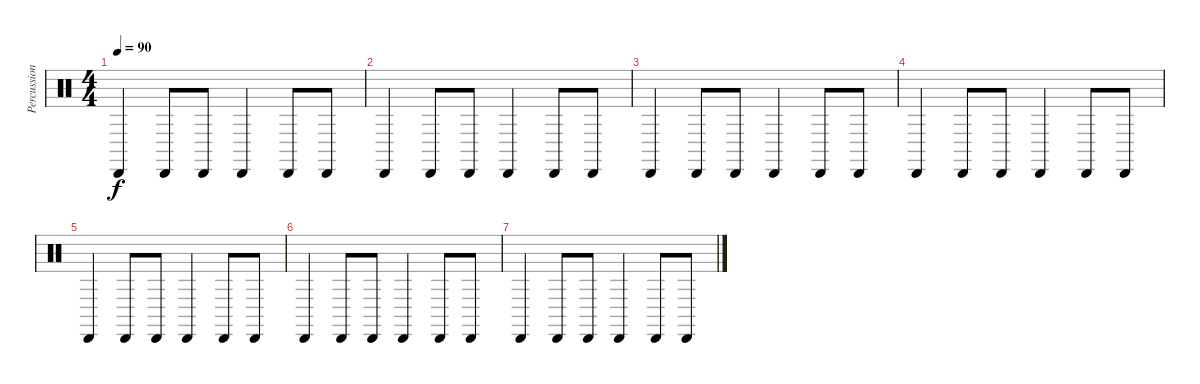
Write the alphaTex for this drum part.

\track ("Percussions" "Percussion") {instrument percussion}
\staff {score}
\articulation defaults
\ts (4 4)
\tempo 90
\clef neutral
\ks c "Cabasa (hit)".4{dy f} "Cabasa (hit)".8 "Cabasa (hit)".8 "Cabasa (hit)".4 "Cabasa (hit)".8 "Cabasa (hit)".8
|
"Cabasa (hit)".4 "Cabasa (hit)".8 "Cabasa (hit)".8 "Cabasa (hit)".4 "Cabasa (hit)".8 "Cabasa (hit)".8 |
"Cabasa (hit)".4 "Cabasa (hit)".8 "Cabasa (hit)".8 "Cabasa (hit)".4 "Cabasa (hit)".8 "Cabasa (hit)".8 |
"Cabasa (hit)".4 "Cabasa (hit)".8 "Cabasa (hit)".8 "Cabasa (hit)".4 "Cabasa (hit)".8 "Cabasa (hit)".8 |
"Cabasa (hit)".4 "Cabasa (hit)".8 "Cabasa (hit)".8 "Cabasa (hit)".4 "Cabasa (hit)".8 "Cabasa (hit)".8 |
"Cabasa (hit)".4 "Cabasa (hit)".8 "Cabasa (hit)".8 "Cabasa (hit)".4 "Cabasa (hit)".8 "Cabasa (hit)".8 |
"Cabasa (hit)".4 "Cabasa (hit)".8 "Cabasa (hit)".8 "Cabasa (hit)".4 "Cabasa (hit)".8 "Cabasa (hit)".8
